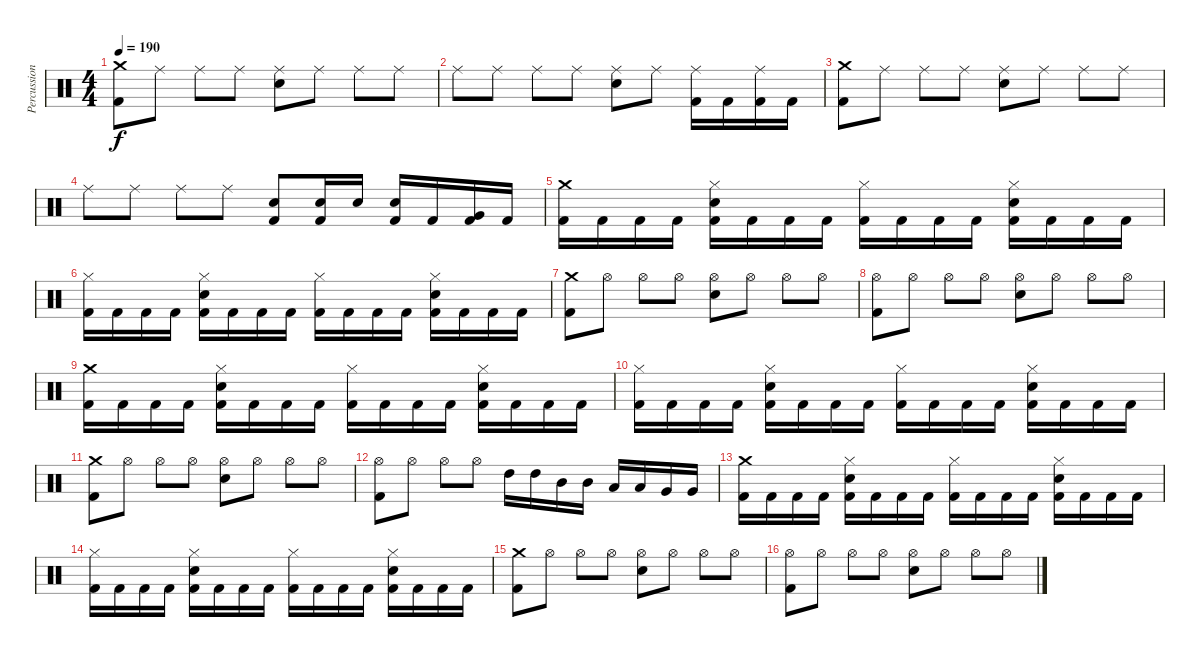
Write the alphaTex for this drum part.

\track ("Percussions" "Percussion") {instrument percussion}
\staff {score}
\articulation defaults
\ts (4 4)
\tempo 190
\clef neutral
\ks c
("Crash medium (hit)" "Kick (hit) 2").8{dy f} "Ride (middle)".8 "Ride (middle)".8 "Ride (middle)".8 ("Ride (middle)" "Electric Snare (hit)").8 "Ride (middle)".8 "Ride (middle)".8 "Ride (middle)".8 |
"Ride (middle)".8 "Ride (middle)".8 "Ride (middle)".8 "Ride (middle)".8 ("Ride (middle)" "Electric Snare (hit)").8 "Ride (middle)".8 ("Ride (middle)" "Kick (hit) 2").16 "Kick (hit) 2".16 ("Ride (middle)" "Kick (hit) 2").16 "Kick (hit) 2".16 |
("Crash medium (hit)" "Kick (hit) 2").8 "Ride (middle)".8 "Ride (middle)".8 "Ride (middle)".8 ("Ride (middle)" "Electric Snare (hit)").8 "Ride (middle)".8 "Ride (middle)".8 "Ride (middle)".8 |
"Ride (middle)".8 "Ride (middle)".8 "Ride (middle)".8 "Ride (middle)".8 ("Electric Snare (hit)" "Kick (hit) 2").8 ("Electric Snare (hit)" "Kick (hit) 2").16 "Electric Snare (hit)".16 ("Electric Snare (hit)" "Kick (hit) 2").16 "Kick (hit) 2".16 ("Very Low Tom (hit)" "Kick (hit) 2").16 "Kick (hit) 2".16 |
("Crash medium (hit)" "Kick (hit) 2").16 "Kick (hit) 2".16 "Kick (hit) 2".16 "Kick (hit) 2".16 ("Hi-Hat (closed)" "Electric Snare (hit)" "Kick (hit) 2").16 "Kick (hit) 2".16 "Kick (hit) 2".16 "Kick (hit) 2".16 ("Hi-Hat (closed)" "Kick (hit) 2").16 "Kick (hit) 2".16 "Kick (hit) 2".16 "Kick (hit) 2".16 ("Hi-Hat (closed)" "Electric Snare (hit)" "Kick (hit) 2").16 "Kick (hit) 2".16 "Kick (hit) 2".16 "Kick (hit) 2".16 |
("Hi-Hat (closed)" "Kick (hit) 2").16 "Kick (hit) 2".16 "Kick (hit) 2".16 "Kick (hit) 2".16 ("Hi-Hat (closed)" "Electric Snare (hit)" "Kick (hit) 2").16 "Kick (hit) 2".16 "Kick (hit) 2".16 "Kick (hit) 2".16 ("Hi-Hat (closed)" "Kick (hit) 2").16 "Kick (hit) 2".16 "Kick (hit) 2".16 "Kick (hit) 2".16 ("Hi-Hat (closed)" "Electric Snare (hit)" "Kick (hit) 2").16 "Kick (hit) 2".16 "Kick (hit) 2".16 "Kick (hit) 2".16 |
("Crash medium (hit)" "Kick (hit) 2").8 "Hi-Hat (open)".8 "Hi-Hat (open)".8 "Hi-Hat (open)".8 ("Hi-Hat (open)" "Electric Snare (hit)").8 "Hi-Hat (open)".8 "Hi-Hat (open)".8 "Hi-Hat (open)".8 |
("Hi-Hat (open)" "Kick (hit) 2").8 "Hi-Hat (open)".8 "Hi-Hat (open)".8 "Hi-Hat (open)".8 ("Hi-Hat (open)" "Electric Snare (hit)").8 "Hi-Hat (open)".8 "Hi-Hat (open)".8 "Hi-Hat (open)".8 |
("Crash medium (hit)" "Kick (hit) 2").16 "Kick (hit) 2".16 "Kick (hit) 2".16 "Kick (hit) 2".16 ("Hi-Hat (closed)" "Electric Snare (hit)" "Kick (hit) 2").16 "Kick (hit) 2".16 "Kick (hit) 2".16 "Kick (hit) 2".16 ("Hi-Hat (closed)" "Kick (hit) 2").16 "Kick (hit) 2".16 "Kick (hit) 2".16 "Kick (hit) 2".16 ("Hi-Hat (closed)" "Electric Snare (hit)" "Kick (hit) 2").16 "Kick (hit) 2".16 "Kick (hit) 2".16 "Kick (hit) 2".16 |
("Hi-Hat (closed)" "Kick (hit) 2").16 "Kick (hit) 2".16 "Kick (hit) 2".16 "Kick (hit) 2".16 ("Hi-Hat (closed)" "Electric Snare (hit)" "Kick (hit) 2").16 "Kick (hit) 2".16 "Kick (hit) 2".16 "Kick (hit) 2".16 ("Hi-Hat (closed)" "Kick (hit) 2").16 "Kick (hit) 2".16 "Kick (hit) 2".16 "Kick (hit) 2".16 ("Hi-Hat (closed)" "Electric Snare (hit)" "Kick (hit) 2").16 "Kick (hit) 2".16 "Kick (hit) 2".16 "Kick (hit) 2".16 |
("Crash medium (hit)" "Kick (hit) 2").8 "Hi-Hat (open)".8 "Hi-Hat (open)".8 "Hi-Hat (open)".8 ("Hi-Hat (open)" "Electric Snare (hit)").8 "Hi-Hat (open)".8 "Hi-Hat (open)".8 "Hi-Hat (open)".8 |
("Hi-Hat (open)" "Kick (hit) 2").8 "Hi-Hat (open)".8 "Hi-Hat (open)".8 "Hi-Hat (open)".8 "High Tom (hit)".16 "High Tom (hit)".16 "Mid Tom (hit)".16 "Mid Tom (hit)".16 "Low Tom (hit)".16 "Low Tom (hit)".16 "Very Low Tom (hit)".16 "Very Low Tom (hit)".16 |
("Crash medium (hit)" "Kick (hit) 2").16 "Kick (hit) 2".16 "Kick (hit) 2".16 "Kick (hit) 2".16 ("Hi-Hat (closed)" "Electric Snare (hit)" "Kick (hit) 2").16 "Kick (hit) 2".16 "Kick (hit) 2".16 "Kick (hit) 2".16 ("Hi-Hat (closed)" "Kick (hit) 2").16 "Kick (hit) 2".16 "Kick (hit) 2".16 "Kick (hit) 2".16 ("Hi-Hat (closed)" "Electric Snare (hit)" "Kick (hit) 2").16 "Kick (hit) 2".16 "Kick (hit) 2".16 "Kick (hit) 2".16 |
("Hi-Hat (closed)" "Kick (hit) 2").16 "Kick (hit) 2".16 "Kick (hit) 2".16 "Kick (hit) 2".16 ("Hi-Hat (closed)" "Electric Snare (hit)" "Kick (hit) 2").16 "Kick (hit) 2".16 "Kick (hit) 2".16 "Kick (hit) 2".16 ("Hi-Hat (closed)" "Kick (hit) 2").16 "Kick (hit) 2".16 "Kick (hit) 2".16 "Kick (hit) 2".16 ("Hi-Hat (closed)" "Electric Snare (hit)" "Kick (hit) 2").16 "Kick (hit) 2".16 "Kick (hit) 2".16 "Kick (hit) 2".16 |
("Crash medium (hit)" "Kick (hit) 2").8 "Hi-Hat (open)".8 "Hi-Hat (open)".8 "Hi-Hat (open)".8 ("Hi-Hat (open)" "Electric Snare (hit)").8 "Hi-Hat (open)".8 "Hi-Hat (open)".8 "Hi-Hat (open)".8 |
("Hi-Hat (open)" "Kick (hit) 2").8 "Hi-Hat (open)".8 "Hi-Hat (open)".8 "Hi-Hat (open)".8 ("Hi-Hat (open)" "Electric Snare (hit)").8 "Hi-Hat (open)".8 "Hi-Hat (open)".8 "Hi-Hat (open)".8
